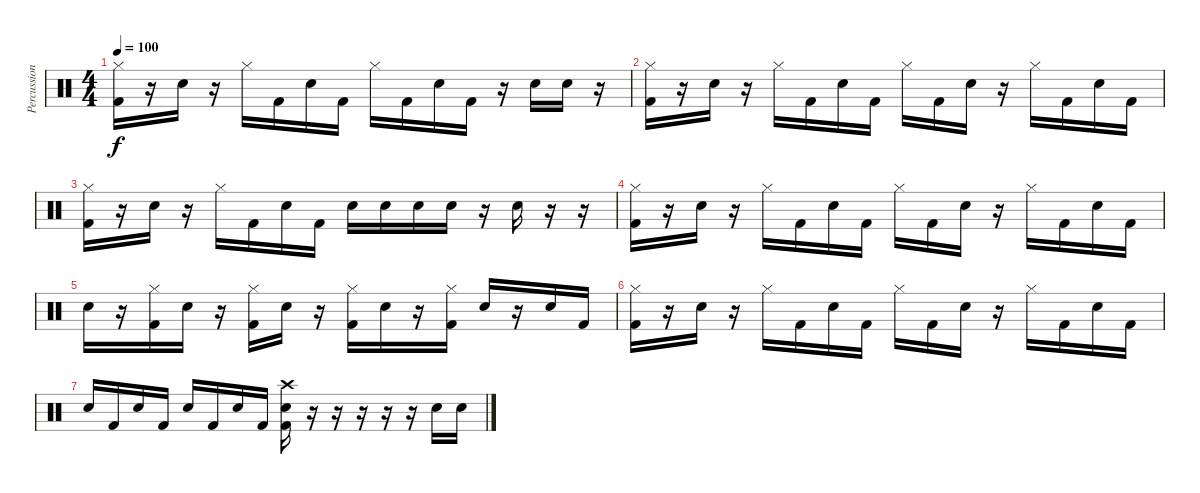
\track ("Percussion" "Percussion") {instrument percussion}
\staff {score}
\articulation defaults
\ts (4 4)
\tempo 100
\clef neutral
\ks c
("Hi-Hat (closed)" "Kick (hit) 2").16{dy f} r.16 "Snare (hit) 2".16 r.16 "Hi-Hat (closed)".16 "Kick (hit) 2".16 "Snare (hit) 2".16 "Kick (hit) 2".16 "Hi-Hat (closed)".16 "Kick (hit) 2".16 "Snare (hit) 2".16 "Kick (hit) 2".16 r.16 "Snare (hit) 2".16 "Snare (hit) 2".16 r.16 |
("Hi-Hat (closed)" "Kick (hit) 2").16 r.16 "Snare (hit) 2".16 r.16 "Hi-Hat (closed)".16 "Kick (hit) 2".16 "Snare (hit) 2".16 "Kick (hit) 2".16 "Hi-Hat (closed)".16 "Kick (hit) 2".16 "Snare (hit) 2".16 r.16 "Hi-Hat (closed)".16 "Kick (hit) 2".16 "Snare (hit) 2".16 "Kick (hit) 2".16 |
("Hi-Hat (closed)" "Kick (hit) 2").16 r.16 "Snare (hit) 2".16 r.16 "Hi-Hat (closed)".16 "Kick (hit) 2".16 "Snare (hit) 2".16 "Kick (hit) 2".16 "Snare (hit) 2".16 "Snare (hit) 2".16 "Snare (hit) 2".16 "Snare (hit) 2".16 r.16 "Snare (hit) 2".16 r.16 r.16 |
("Hi-Hat (closed)" "Kick (hit) 2").16 r.16 "Snare (hit) 2".16 r.16 "Hi-Hat (closed)".16 "Kick (hit) 2".16 "Snare (hit) 2".16 "Kick (hit) 2".16 "Hi-Hat (closed)".16 "Kick (hit) 2".16 "Snare (hit) 2".16 r.16 "Hi-Hat (closed)".16 "Kick (hit) 2".16 "Snare (hit) 2".16 "Kick (hit) 2".16 |
"Snare (hit) 2".16 r.16 ("Hi-Hat (closed)" "Kick (hit) 2").16 "Snare (hit) 2".16 r.16 ("Hi-Hat (closed)" "Kick (hit) 2").16 "Snare (hit) 2".16 r.16 ("Hi-Hat (closed)" "Kick (hit) 2").16 "Snare (hit) 2".16 r.16 ("Hi-Hat (closed)" "Kick (hit) 2").16 "Snare (hit) 2".16 r.16 "Snare (hit) 2".16 "Kick (hit) 2".16 |
("Hi-Hat (closed)" "Kick (hit) 2").16 r.16 "Snare (hit) 2".16 r.16 "Hi-Hat (closed)".16 "Kick (hit) 2".16 "Snare (hit) 2".16 "Kick (hit) 2".16 "Hi-Hat (closed)".16 "Kick (hit) 2".16 "Snare (hit) 2".16 r.16 "Hi-Hat (closed)".16 "Kick (hit) 2".16 "Snare (hit) 2".16 "Kick (hit) 2".16 |
"Snare (hit) 2".16 "Kick (hit) 2".16 "Snare (hit) 2".16 "Kick (hit) 2".16 "Snare (hit) 2".16 "Kick (hit) 2".16 "Snare (hit) 2".16 "Kick (hit) 2".16 ("Crash high (hit)" "Snare (hit) 2" "Kick (hit) 2").16 r.16 r.16 r.16 r.16 r.16 "Snare (hit) 2".16 "Snare (hit) 2".16
